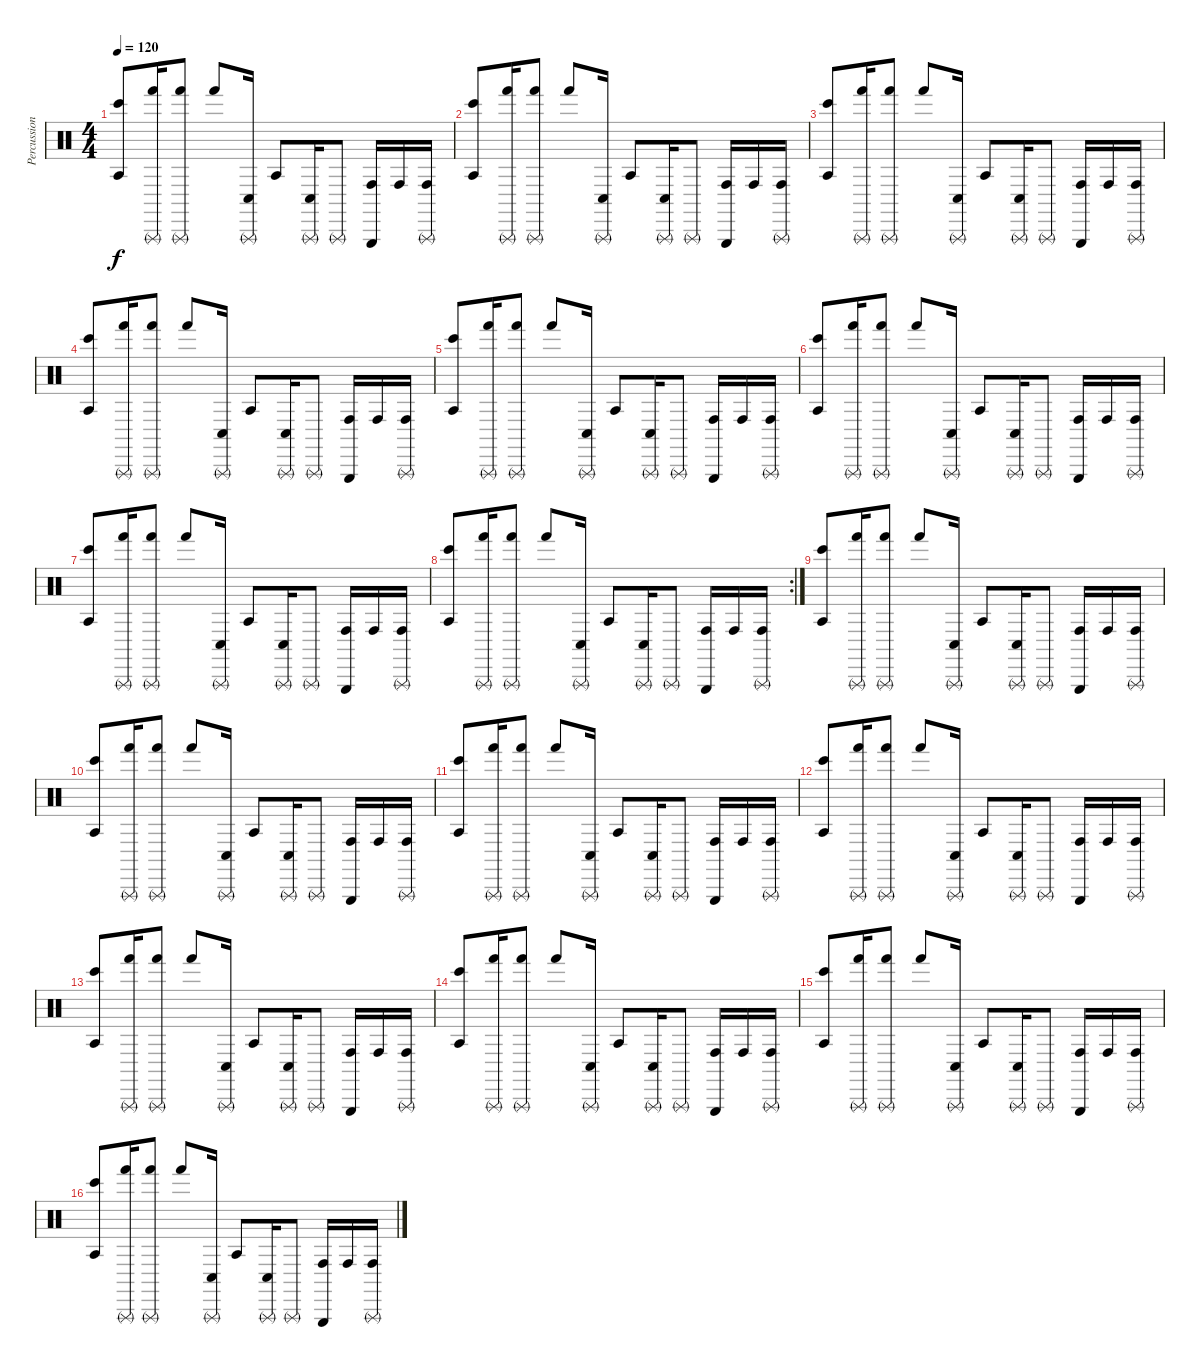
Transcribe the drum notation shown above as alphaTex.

\track ("Percussion" "Percussion") {instrument percussion}
\staff {score}
\articulation defaults
\ts (4 4)
\tempo 120
\clef neutral
\ks c
("Agogo tow (hit)" "Bongo High (hit)").8{dy f} ("Triangle (rnute)" "Hand (hit)").16 ("Triangle (rnute)" "Hand (hit)").8 "Hand (hit)".8 ("Triangle (rnute)" "Conga low (hit)").16 "Agogo tow (hit)".8 ("Triangle (rnute)" "Conga low (hit)").16 "Triangle (rnute)".8 ("Triangle (hit)" "Conga high (hit)").16 "Conga high (hit)".16 ("Triangle (rnute)" "Conga high (hit)").16 |
("Agogo tow (hit)" "Bongo High (hit)").8 ("Triangle (rnute)" "Hand (hit)").16 ("Triangle (rnute)" "Hand (hit)").8 "Hand (hit)".8 ("Triangle (rnute)" "Conga low (hit)").16 "Agogo tow (hit)".8 ("Triangle (rnute)" "Conga low (hit)").16 "Triangle (rnute)".8 ("Triangle (hit)" "Conga high (hit)").16 "Conga high (hit)".16 ("Triangle (rnute)" "Conga high (hit)").16 |
("Agogo tow (hit)" "Bongo High (hit)").8 ("Triangle (rnute)" "Hand (hit)").16 ("Triangle (rnute)" "Hand (hit)").8 "Hand (hit)".8 ("Triangle (rnute)" "Conga low (hit)").16 "Agogo tow (hit)".8 ("Triangle (rnute)" "Conga low (hit)").16 "Triangle (rnute)".8 ("Triangle (hit)" "Conga high (hit)").16 "Conga high (hit)".16 ("Triangle (rnute)" "Conga high (hit)").16 |
("Agogo tow (hit)" "Bongo High (hit)").8 ("Triangle (rnute)" "Hand (hit)").16 ("Triangle (rnute)" "Hand (hit)").8 "Hand (hit)".8 ("Triangle (rnute)" "Conga low (hit)").16 "Agogo tow (hit)".8 ("Triangle (rnute)" "Conga low (hit)").16 "Triangle (rnute)".8 ("Triangle (hit)" "Conga high (hit)").16 "Conga high (hit)".16 ("Triangle (rnute)" "Conga high (hit)").16 |
("Agogo tow (hit)" "Bongo High (hit)").8 ("Triangle (rnute)" "Hand (hit)").16 ("Triangle (rnute)" "Hand (hit)").8 "Hand (hit)".8 ("Triangle (rnute)" "Conga low (hit)").16 "Agogo tow (hit)".8 ("Triangle (rnute)" "Conga low (hit)").16 "Triangle (rnute)".8 ("Triangle (hit)" "Conga high (hit)").16 "Conga high (hit)".16 ("Triangle (rnute)" "Conga high (hit)").16 |
("Agogo tow (hit)" "Bongo High (hit)").8 ("Triangle (rnute)" "Hand (hit)").16 ("Triangle (rnute)" "Hand (hit)").8 "Hand (hit)".8 ("Triangle (rnute)" "Conga low (hit)").16 "Agogo tow (hit)".8 ("Triangle (rnute)" "Conga low (hit)").16 "Triangle (rnute)".8 ("Triangle (hit)" "Conga high (hit)").16 "Conga high (hit)".16 ("Triangle (rnute)" "Conga high (hit)").16 |
("Agogo tow (hit)" "Bongo High (hit)").8 ("Triangle (rnute)" "Hand (hit)").16 ("Triangle (rnute)" "Hand (hit)").8 "Hand (hit)".8 ("Triangle (rnute)" "Conga low (hit)").16 "Agogo tow (hit)".8 ("Triangle (rnute)" "Conga low (hit)").16 "Triangle (rnute)".8 ("Triangle (hit)" "Conga high (hit)").16 "Conga high (hit)".16 ("Triangle (rnute)" "Conga high (hit)").16 |
\rc 2
("Agogo tow (hit)" "Bongo High (hit)").8 ("Triangle (rnute)" "Hand (hit)").16 ("Triangle (rnute)" "Hand (hit)").8 "Hand (hit)".8 ("Triangle (rnute)" "Conga low (hit)").16 "Agogo tow (hit)".8 ("Triangle (rnute)" "Conga low (hit)").16 "Triangle (rnute)".8 ("Triangle (hit)" "Conga high (hit)").16 "Conga high (hit)".16 ("Triangle (rnute)" "Conga high (hit)").16 |
("Agogo tow (hit)" "Bongo High (hit)").8 ("Triangle (rnute)" "Hand (hit)").16 ("Triangle (rnute)" "Hand (hit)").8 "Hand (hit)".8 ("Triangle (rnute)" "Conga low (hit)").16 "Agogo tow (hit)".8 ("Triangle (rnute)" "Conga low (hit)").16 "Triangle (rnute)".8 ("Triangle (hit)" "Conga high (hit)").16 "Conga high (hit)".16 ("Triangle (rnute)" "Conga high (hit)").16 |
("Agogo tow (hit)" "Bongo High (hit)").8 ("Triangle (rnute)" "Hand (hit)").16 ("Triangle (rnute)" "Hand (hit)").8 "Hand (hit)".8 ("Triangle (rnute)" "Conga low (hit)").16 "Agogo tow (hit)".8 ("Triangle (rnute)" "Conga low (hit)").16 "Triangle (rnute)".8 ("Triangle (hit)" "Conga high (hit)").16 "Conga high (hit)".16 ("Triangle (rnute)" "Conga high (hit)").16 |
("Agogo tow (hit)" "Bongo High (hit)").8 ("Triangle (rnute)" "Hand (hit)").16 ("Triangle (rnute)" "Hand (hit)").8 "Hand (hit)".8 ("Triangle (rnute)" "Conga low (hit)").16 "Agogo tow (hit)".8 ("Triangle (rnute)" "Conga low (hit)").16 "Triangle (rnute)".8 ("Triangle (hit)" "Conga high (hit)").16 "Conga high (hit)".16 ("Triangle (rnute)" "Conga high (hit)").16 |
("Agogo tow (hit)" "Bongo High (hit)").8 ("Triangle (rnute)" "Hand (hit)").16 ("Triangle (rnute)" "Hand (hit)").8 "Hand (hit)".8 ("Triangle (rnute)" "Conga low (hit)").16 "Agogo tow (hit)".8 ("Triangle (rnute)" "Conga low (hit)").16 "Triangle (rnute)".8 ("Triangle (hit)" "Conga high (hit)").16 "Conga high (hit)".16 ("Triangle (rnute)" "Conga high (hit)").16 |
("Agogo tow (hit)" "Bongo High (hit)").8 ("Triangle (rnute)" "Hand (hit)").16 ("Triangle (rnute)" "Hand (hit)").8 "Hand (hit)".8 ("Triangle (rnute)" "Conga low (hit)").16 "Agogo tow (hit)".8 ("Triangle (rnute)" "Conga low (hit)").16 "Triangle (rnute)".8 ("Triangle (hit)" "Conga high (hit)").16 "Conga high (hit)".16 ("Triangle (rnute)" "Conga high (hit)").16 |
("Agogo tow (hit)" "Bongo High (hit)").8 ("Triangle (rnute)" "Hand (hit)").16 ("Triangle (rnute)" "Hand (hit)").8 "Hand (hit)".8 ("Triangle (rnute)" "Conga low (hit)").16 "Agogo tow (hit)".8 ("Triangle (rnute)" "Conga low (hit)").16 "Triangle (rnute)".8 ("Triangle (hit)" "Conga high (hit)").16 "Conga high (hit)".16 ("Triangle (rnute)" "Conga high (hit)").16 |
("Agogo tow (hit)" "Bongo High (hit)").8 ("Triangle (rnute)" "Hand (hit)").16 ("Triangle (rnute)" "Hand (hit)").8 "Hand (hit)".8 ("Triangle (rnute)" "Conga low (hit)").16 "Agogo tow (hit)".8 ("Triangle (rnute)" "Conga low (hit)").16 "Triangle (rnute)".8 ("Triangle (hit)" "Conga high (hit)").16 "Conga high (hit)".16 ("Triangle (rnute)" "Conga high (hit)").16 |
("Agogo tow (hit)" "Bongo High (hit)").8 ("Triangle (rnute)" "Hand (hit)").16 ("Triangle (rnute)" "Hand (hit)").8 "Hand (hit)".8 ("Triangle (rnute)" "Conga low (hit)").16 "Agogo tow (hit)".8 ("Triangle (rnute)" "Conga low (hit)").16 "Triangle (rnute)".8 ("Triangle (hit)" "Conga high (hit)").16 "Conga high (hit)".16 ("Triangle (rnute)" "Conga high (hit)").16
